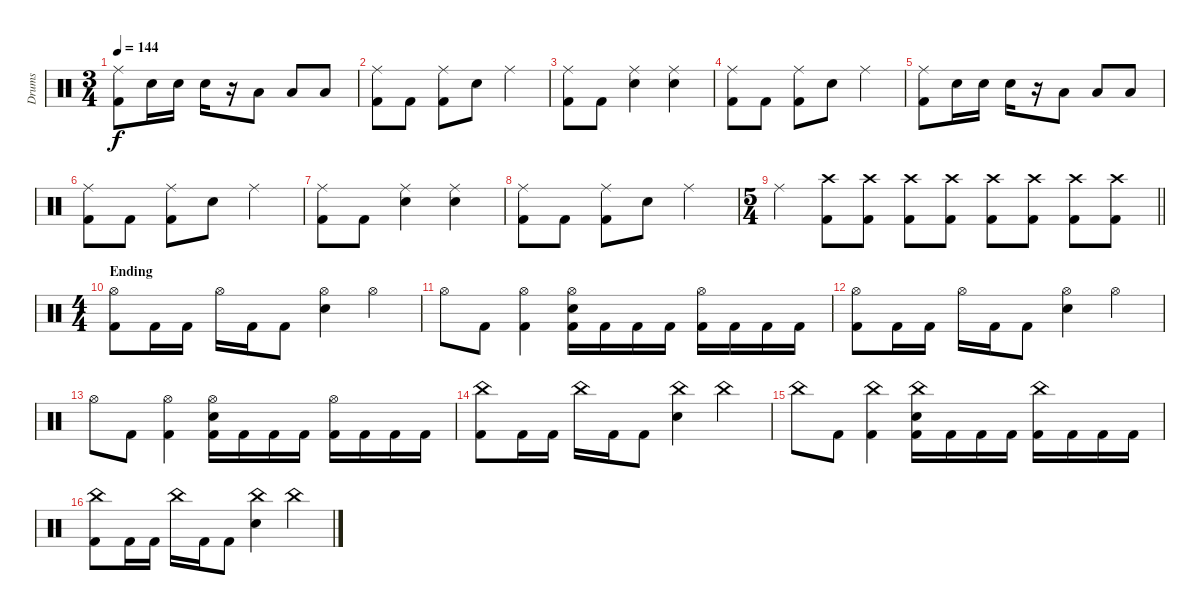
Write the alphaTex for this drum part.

\track ("Drums" "Drums") {instrument percussion}
\staff {score}
\articulation defaults
\ts (3 4)
\tempo 144
\clef neutral
\ks c
("Ride (middle)" "Kick (hit) 2").8{dy f} "Snare (hit) 2".16 "Snare (hit) 2".16 "Snare (hit) 2".16 r.16 "Low Tom (hit)".8 "Low Tom (hit)".8 "Low Tom (hit)".8 |
("Ride (middle)" "Kick (hit) 2").8 "Kick (hit) 2".8 ("Ride (middle)" "Kick (hit) 2").8 "Snare (hit) 2".8 "Ride (middle)".4 |
("Ride (middle)" "Kick (hit) 2").8 "Kick (hit) 2".8 ("Ride (middle)" "Snare (hit) 2").4 ("Ride (middle)" "Snare (hit) 2").4 |
("Ride (middle)" "Kick (hit) 2").8 "Kick (hit) 2".8 ("Ride (middle)" "Kick (hit) 2").8 "Snare (hit) 2".8 "Ride (middle)".4 |
("Ride (middle)" "Kick (hit) 2").8 "Snare (hit) 2".16 "Snare (hit) 2".16 "Snare (hit) 2".16 r.16 "Low Tom (hit)".8 "Low Tom (hit)".8 "Low Tom (hit)".8 |
("Ride (middle)" "Kick (hit) 2").8 "Kick (hit) 2".8 ("Ride (middle)" "Kick (hit) 2").8 "Snare (hit) 2".8 "Ride (middle)".4 |
("Ride (middle)" "Kick (hit) 2").8 "Kick (hit) 2".8 ("Ride (middle)" "Snare (hit) 2").4 ("Ride (middle)" "Snare (hit) 2").4 |
("Ride (middle)" "Kick (hit) 2").8 "Kick (hit) 2".8 ("Ride (middle)" "Kick (hit) 2").8 "Snare (hit) 2".8 "Ride (middle)".4 |
\ts (5 4)
\barLineRight lightlight "Ride (middle)".4
("Crash high (hit)" "Kick (hit) 2").8 ("Crash high (hit)" "Kick (hit) 2").8 ("Crash high (hit)" "Kick (hit) 2").8 ("Crash high (hit)" "Kick (hit) 2").8 ("Crash high (hit)" "Kick (hit) 2").8 ("Crash high (hit)" "Kick (hit) 2").8 ("Crash high (hit)" "Kick (hit) 2").8 ("Crash high (hit)" "Kick (hit) 2").8 |
\ts (4 4)
\section ("" "Ending")
("Hi-Hat (open)" "Kick (hit) 2").8 "Kick (hit) 2".16 "Kick (hit) 2".16 "Hi-Hat (open)".16 "Kick (hit) 2".16 "Kick (hit) 2".8 ("Hi-Hat (open)" "Snare (hit) 2").4 "Hi-Hat (open)".4 |
"Hi-Hat (open)".8 "Kick (hit) 2".8 ("Hi-Hat (open)" "Kick (hit) 2").4 ("Hi-Hat (open)" "Snare (hit) 2" "Kick (hit) 2").16 "Kick (hit) 2".16 "Kick (hit) 2".16 "Kick (hit) 2".16 ("Hi-Hat (open)" "Kick (hit) 2").16 "Kick (hit) 2".16 "Kick (hit) 2".16 "Kick (hit) 2".16 |
("Hi-Hat (open)" "Kick (hit) 2").8 "Kick (hit) 2".16 "Kick (hit) 2".16 "Hi-Hat (open)".16 "Kick (hit) 2".16 "Kick (hit) 2".8 ("Hi-Hat (open)" "Snare (hit) 2").4 "Hi-Hat (open)".4 |
"Hi-Hat (open)".8 "Kick (hit) 2".8 ("Hi-Hat (open)" "Kick (hit) 2").4 ("Hi-Hat (open)" "Snare (hit) 2" "Kick (hit) 2").16 "Kick (hit) 2".16 "Kick (hit) 2".16 "Kick (hit) 2".16 ("Hi-Hat (open)" "Kick (hit) 2").16 "Kick (hit) 2".16 "Kick (hit) 2".16 "Kick (hit) 2".16 |
("China (hit)" "Kick (hit) 2").8 "Kick (hit) 2".16 "Kick (hit) 2".16 "China (hit)".16 "Kick (hit) 2".16 "Kick (hit) 2".8 ("China (hit)" "Snare (hit) 2").4 "China (hit)".4 |
"China (hit)".8 "Kick (hit) 2".8 ("China (hit)" "Kick (hit) 2").4 ("China (hit)" "Snare (hit) 2" "Kick (hit) 2").16 "Kick (hit) 2".16 "Kick (hit) 2".16 "Kick (hit) 2".16 ("China (hit)" "Kick (hit) 2").16 "Kick (hit) 2".16 "Kick (hit) 2".16 "Kick (hit) 2".16 |
("China (hit)" "Kick (hit) 2").8 "Kick (hit) 2".16 "Kick (hit) 2".16 "China (hit)".16 "Kick (hit) 2".16 "Kick (hit) 2".8 ("China (hit)" "Snare (hit) 2").4 "China (hit)".4
